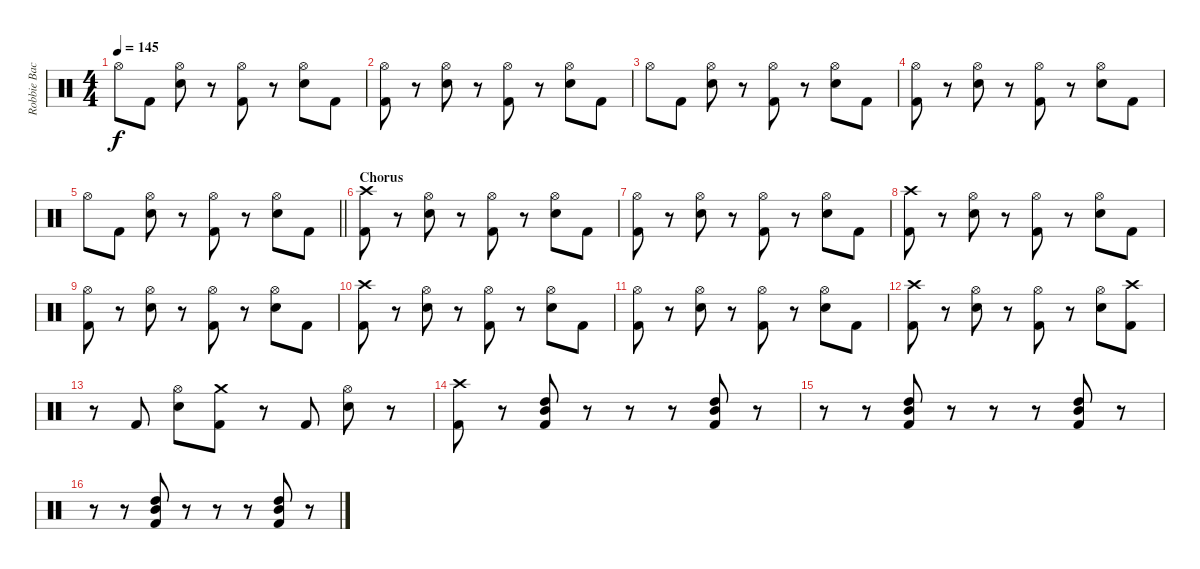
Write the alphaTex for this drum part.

\track ("Robbie Bachman" "Robbie Bac") {instrument percussion}
\staff {score}
\articulation defaults
\ts (4 4)
\tempo 145
\clef neutral
\ks c "Hi-Hat (open)".8{dy f} "Kick (hit) 2".8
("Hi-Hat (open)" "Snare (hit) 2").8 r.8 ("Hi-Hat (open)" "Kick (hit) 2").8 r.8 ("Hi-Hat (open)" "Snare (hit) 2").8 "Kick (hit) 2".8 |
("Hi-Hat (open)" "Kick (hit) 2").8 r.8 ("Hi-Hat (open)" "Snare (hit) 2").8 r.8 ("Hi-Hat (open)" "Kick (hit) 2").8 r.8 ("Hi-Hat (open)" "Snare (hit) 2").8 "Kick (hit) 2".8 |
"Hi-Hat (open)".8 "Kick (hit) 2".8 ("Hi-Hat (open)" "Snare (hit) 2").8 r.8 ("Hi-Hat (open)" "Kick (hit) 2").8 r.8 ("Hi-Hat (open)" "Snare (hit) 2").8 "Kick (hit) 2".8 |
("Hi-Hat (open)" "Kick (hit) 2").8 r.8 ("Hi-Hat (open)" "Snare (hit) 2").8 r.8 ("Hi-Hat (open)" "Kick (hit) 2").8 r.8 ("Hi-Hat (open)" "Snare (hit) 2").8 "Kick (hit) 2".8 |
\barLineRight lightlight "Hi-Hat (open)".8 "Kick (hit) 2".8
("Hi-Hat (open)" "Snare (hit) 2").8 r.8 ("Hi-Hat (open)" "Kick (hit) 2").8 r.8 ("Hi-Hat (open)" "Snare (hit) 2").8 "Kick (hit) 2".8 |
\section ("" "Chorus")
("Crash high (hit)" "Kick (hit) 2").8 r.8 ("Hi-Hat (open)" "Snare (hit) 2").8 r.8 ("Hi-Hat (open)" "Kick (hit) 2").8 r.8 ("Hi-Hat (open)" "Snare (hit) 2").8 "Kick (hit) 2".8 |
("Hi-Hat (open)" "Kick (hit) 2").8 r.8 ("Hi-Hat (open)" "Snare (hit) 2").8 r.8 ("Hi-Hat (open)" "Kick (hit) 2").8 r.8 ("Hi-Hat (open)" "Snare (hit) 2").8 "Kick (hit) 2".8 |
("Crash high (hit)" "Kick (hit) 2").8 r.8 ("Hi-Hat (open)" "Snare (hit) 2").8 r.8 ("Hi-Hat (open)" "Kick (hit) 2").8 r.8 ("Hi-Hat (open)" "Snare (hit) 2").8 "Kick (hit) 2".8 |
("Hi-Hat (open)" "Kick (hit) 2").8 r.8 ("Hi-Hat (open)" "Snare (hit) 2").8 r.8 ("Hi-Hat (open)" "Kick (hit) 2").8 r.8 ("Hi-Hat (open)" "Snare (hit) 2").8 "Kick (hit) 2".8 |
("Crash high (hit)" "Kick (hit) 2").8 r.8 ("Hi-Hat (open)" "Snare (hit) 2").8 r.8 ("Hi-Hat (open)" "Kick (hit) 2").8 r.8 ("Hi-Hat (open)" "Snare (hit) 2").8 "Kick (hit) 2".8 |
("Hi-Hat (open)" "Kick (hit) 2").8 r.8 ("Hi-Hat (open)" "Snare (hit) 2").8 r.8 ("Hi-Hat (open)" "Kick (hit) 2").8 r.8 ("Hi-Hat (open)" "Snare (hit) 2").8 "Kick (hit) 2".8 |
("Crash high (hit)" "Kick (hit) 2").8 r.8 ("Hi-Hat (open)" "Snare (hit) 2").8 r.8 ("Hi-Hat (open)" "Kick (hit) 2").8 r.8 ("Hi-Hat (open)" "Snare (hit) 2").8 ("Crash high (hit)" "Kick (hit) 2").8 |
r.8 "Kick (hit) 2".8 ("Hi-Hat (open)" "Snare (hit) 2").8 ("Crash medium (hit)" "Kick (hit) 2").8 r.8 "Kick (hit) 2".8 ("Hi-Hat (open)" "Snare (hit) 2").8 r.8 |
("Crash high (hit)" "Kick (hit) 2").8 r.8 ("Mid Tom (hit)" "High Tom (hit)" "Kick (hit) 2").8 r.8 r.8 r.8 ("Mid Tom (hit)" "High Tom (hit)" "Kick (hit) 2").8 r.8 |
r.8 r.8 ("Mid Tom (hit)" "High Tom (hit)" "Kick (hit) 2").8 r.8 r.8 r.8 ("Mid Tom (hit)" "High Tom (hit)" "Kick (hit) 2").8 r.8 |
r.8 r.8 ("Mid Tom (hit)" "High Tom (hit)" "Kick (hit) 2").8 r.8 r.8 r.8 ("Mid Tom (hit)" "High Tom (hit)" "Kick (hit) 2").8 r.8
